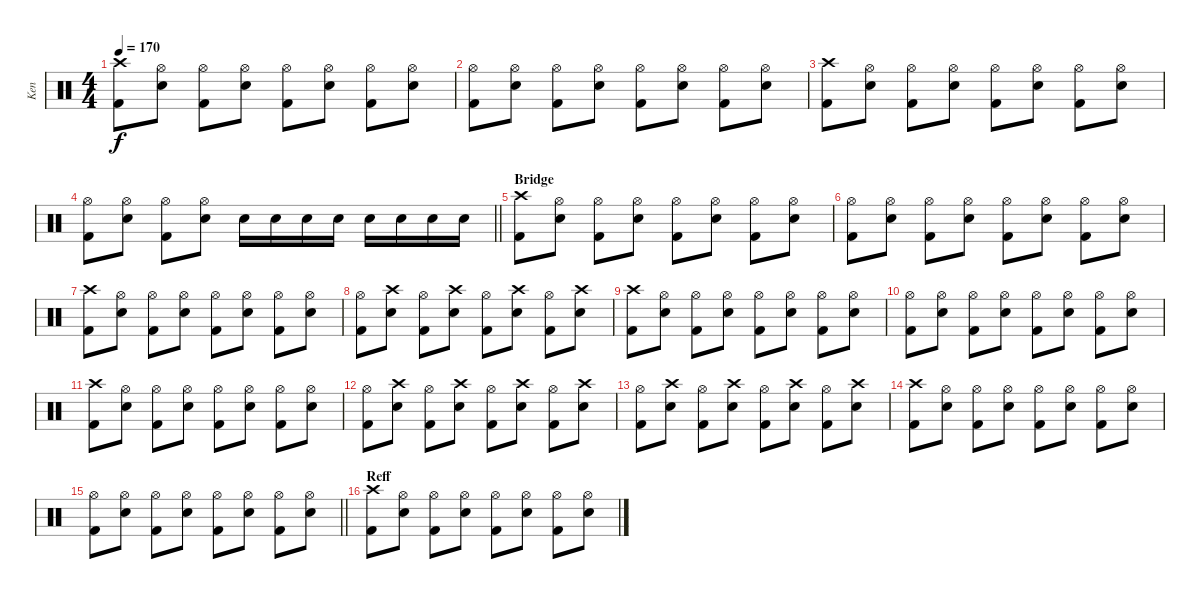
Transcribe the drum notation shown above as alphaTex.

\track ("Ken" "Ken") {instrument percussion}
\staff {score}
\articulation defaults
\ts (4 4)
\tempo 170
\clef neutral
\ks c
("Crash high (hit)" "Kick (hit) 2").8{dy f} ("Hi-Hat (open)" "Snare (hit) 2").8 ("Hi-Hat (open)" "Kick (hit) 2").8 ("Hi-Hat (open)" "Snare (hit) 2").8 ("Hi-Hat (open)" "Kick (hit) 2").8 ("Hi-Hat (open)" "Snare (hit) 2").8 ("Hi-Hat (open)" "Kick (hit) 2").8 ("Hi-Hat (open)" "Snare (hit) 2").8 |
("Hi-Hat (open)" "Kick (hit) 2").8 ("Hi-Hat (open)" "Snare (hit) 2").8 ("Hi-Hat (open)" "Kick (hit) 2").8 ("Hi-Hat (open)" "Snare (hit) 2").8 ("Hi-Hat (open)" "Kick (hit) 2").8 ("Hi-Hat (open)" "Snare (hit) 2").8 ("Hi-Hat (open)" "Kick (hit) 2").8 ("Hi-Hat (open)" "Snare (hit) 2").8 |
("Crash high (hit)" "Kick (hit) 2").8 ("Hi-Hat (open)" "Snare (hit) 2").8 ("Hi-Hat (open)" "Kick (hit) 2").8 ("Hi-Hat (open)" "Snare (hit) 2").8 ("Hi-Hat (open)" "Kick (hit) 2").8 ("Hi-Hat (open)" "Snare (hit) 2").8 ("Hi-Hat (open)" "Kick (hit) 2").8 ("Hi-Hat (open)" "Snare (hit) 2").8 |
\barLineRight lightlight
("Hi-Hat (open)" "Kick (hit) 2").8 ("Hi-Hat (open)" "Snare (hit) 2").8 ("Hi-Hat (open)" "Kick (hit) 2").8 ("Hi-Hat (open)" "Snare (hit) 2").8 "Snare (hit) 2".16 "Snare (hit) 2".16 "Snare (hit) 2".16 "Snare (hit) 2".16 "Snare (hit) 2".16 "Snare (hit) 2".16 "Snare (hit) 2".16 "Snare (hit) 2".16 |
\section ("" "Bridge")
("Crash high (hit)" "Kick (hit) 2").8 ("Hi-Hat (open)" "Snare (hit) 2").8 ("Hi-Hat (open)" "Kick (hit) 2").8 ("Hi-Hat (open)" "Snare (hit) 2").8 ("Hi-Hat (open)" "Kick (hit) 2").8 ("Hi-Hat (open)" "Snare (hit) 2").8 ("Hi-Hat (open)" "Kick (hit) 2").8 ("Hi-Hat (open)" "Snare (hit) 2").8 |
("Hi-Hat (open)" "Kick (hit) 2").8 ("Hi-Hat (open)" "Snare (hit) 2").8 ("Hi-Hat (open)" "Kick (hit) 2").8 ("Hi-Hat (open)" "Snare (hit) 2").8 ("Hi-Hat (open)" "Kick (hit) 2").8 ("Hi-Hat (open)" "Snare (hit) 2").8 ("Hi-Hat (open)" "Kick (hit) 2").8 ("Hi-Hat (open)" "Snare (hit) 2").8 |
("Crash high (hit)" "Kick (hit) 2").8 ("Hi-Hat (open)" "Snare (hit) 2").8 ("Hi-Hat (open)" "Kick (hit) 2").8 ("Hi-Hat (open)" "Snare (hit) 2").8 ("Hi-Hat (open)" "Kick (hit) 2").8 ("Hi-Hat (open)" "Snare (hit) 2").8 ("Hi-Hat (open)" "Kick (hit) 2").8 ("Hi-Hat (open)" "Snare (hit) 2").8 |
("Hi-Hat (open)" "Kick (hit) 2").8 ("Crash high (hit)" "Snare (hit) 2").8 ("Hi-Hat (open)" "Kick (hit) 2").8 ("Crash high (hit)" "Snare (hit) 2").8 ("Hi-Hat (open)" "Kick (hit) 2").8 ("Crash high (hit)" "Snare (hit) 2").8 ("Hi-Hat (open)" "Kick (hit) 2").8 ("Crash high (hit)" "Snare (hit) 2").8 |
("Crash high (hit)" "Kick (hit) 2").8 ("Hi-Hat (open)" "Snare (hit) 2").8 ("Hi-Hat (open)" "Kick (hit) 2").8 ("Hi-Hat (open)" "Snare (hit) 2").8 ("Hi-Hat (open)" "Kick (hit) 2").8 ("Hi-Hat (open)" "Snare (hit) 2").8 ("Hi-Hat (open)" "Kick (hit) 2").8 ("Hi-Hat (open)" "Snare (hit) 2").8 |
("Hi-Hat (open)" "Kick (hit) 2").8 ("Hi-Hat (open)" "Snare (hit) 2").8 ("Hi-Hat (open)" "Kick (hit) 2").8 ("Hi-Hat (open)" "Snare (hit) 2").8 ("Hi-Hat (open)" "Kick (hit) 2").8 ("Hi-Hat (open)" "Snare (hit) 2").8 ("Hi-Hat (open)" "Kick (hit) 2").8 ("Hi-Hat (open)" "Snare (hit) 2").8 |
("Crash high (hit)" "Kick (hit) 2").8 ("Hi-Hat (open)" "Snare (hit) 2").8 ("Hi-Hat (open)" "Kick (hit) 2").8 ("Hi-Hat (open)" "Snare (hit) 2").8 ("Hi-Hat (open)" "Kick (hit) 2").8 ("Hi-Hat (open)" "Snare (hit) 2").8 ("Hi-Hat (open)" "Kick (hit) 2").8 ("Hi-Hat (open)" "Snare (hit) 2").8 |
("Hi-Hat (open)" "Kick (hit) 2").8 ("Crash high (hit)" "Snare (hit) 2").8 ("Hi-Hat (open)" "Kick (hit) 2").8 ("Crash high (hit)" "Snare (hit) 2").8 ("Hi-Hat (open)" "Kick (hit) 2").8 ("Crash high (hit)" "Snare (hit) 2").8 ("Hi-Hat (open)" "Kick (hit) 2").8 ("Crash high (hit)" "Snare (hit) 2").8 |
("Hi-Hat (open)" "Kick (hit) 2").8 ("Crash high (hit)" "Snare (hit) 2").8 ("Hi-Hat (open)" "Kick (hit) 2").8 ("Crash high (hit)" "Snare (hit) 2").8 ("Hi-Hat (open)" "Kick (hit) 2").8 ("Crash high (hit)" "Snare (hit) 2").8 ("Hi-Hat (open)" "Kick (hit) 2").8 ("Crash high (hit)" "Snare (hit) 2").8 |
("Crash high (hit)" "Kick (hit) 2").8 ("Hi-Hat (open)" "Snare (hit) 2").8 ("Hi-Hat (open)" "Kick (hit) 2").8 ("Hi-Hat (open)" "Snare (hit) 2").8 ("Hi-Hat (open)" "Kick (hit) 2").8 ("Hi-Hat (open)" "Snare (hit) 2").8 ("Hi-Hat (open)" "Kick (hit) 2").8 ("Hi-Hat (open)" "Snare (hit) 2").8 |
\barLineRight lightlight
("Hi-Hat (open)" "Kick (hit) 2").8 ("Hi-Hat (open)" "Snare (hit) 2").8 ("Hi-Hat (open)" "Kick (hit) 2").8 ("Hi-Hat (open)" "Snare (hit) 2").8 ("Hi-Hat (open)" "Kick (hit) 2").8 ("Hi-Hat (open)" "Snare (hit) 2").8 ("Hi-Hat (open)" "Kick (hit) 2").8 ("Hi-Hat (open)" "Snare (hit) 2").8 |
\section ("" "Reff")
("Crash high (hit)" "Kick (hit) 2").8 ("Hi-Hat (open)" "Snare (hit) 2").8 ("Hi-Hat (open)" "Kick (hit) 2").8 ("Hi-Hat (open)" "Snare (hit) 2").8 ("Hi-Hat (open)" "Kick (hit) 2").8 ("Hi-Hat (open)" "Snare (hit) 2").8 ("Hi-Hat (open)" "Kick (hit) 2").8 ("Hi-Hat (open)" "Snare (hit) 2").8
